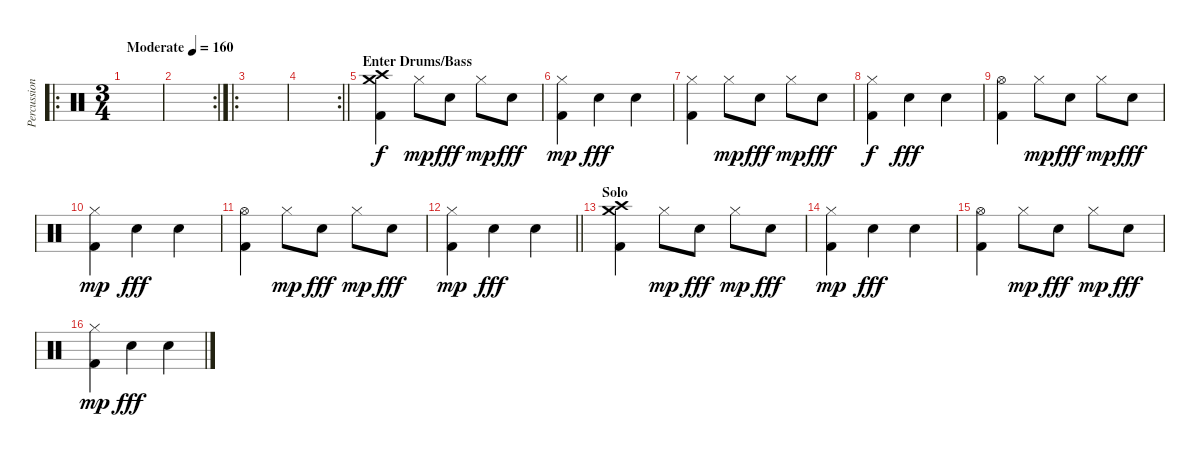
\track ("Percussion" "Percussion") {solo instrument percussion}
\staff {score}
\articulation defaults
\ro
\ts (3 4)
\tempo (160 "Moderate")
\clef neutral
\ks c
|
\rc 2
|
\ro
|
\rc 2
\barLineRight lightlight
|
\section ("" "Enter Drums/Bass")
("Crash medium (hit)" "Crash high (hit)" "Kick (hit) 2").4 "Hi-Hat (closed)".8{dy mp} "Electric Snare (hit)".8{dy fff} "Hi-Hat (closed)".8{dy mp} "Electric Snare (hit)".8{dy fff} |
("Hi-Hat (closed)" "Kick (hit) 2").4{dy mp} "Electric Snare (hit)".4{dy fff} "Electric Snare (hit)".4 |
("Hi-Hat (closed)" "Kick (hit) 2").4 "Hi-Hat (closed)".8{dy mp} "Electric Snare (hit)".8{dy fff} "Hi-Hat (closed)".8{dy mp} "Electric Snare (hit)".8{dy fff} |
("Hi-Hat (closed)" "Kick (hit) 2").4{dy f} "Electric Snare (hit)".4{dy fff} "Electric Snare (hit)".4 |
("Hi-Hat (open)" "Kick (hit) 2").4 "Hi-Hat (closed)".8{dy mp} "Electric Snare (hit)".8{dy fff} "Hi-Hat (closed)".8{dy mp} "Electric Snare (hit)".8{dy fff} |
("Hi-Hat (closed)" "Kick (hit) 2").4{dy mp} "Electric Snare (hit)".4{dy fff} "Electric Snare (hit)".4 |
("Hi-Hat (open)" "Kick (hit) 2").4 "Hi-Hat (closed)".8{dy mp} "Electric Snare (hit)".8{dy fff} "Hi-Hat (closed)".8{dy mp} "Electric Snare (hit)".8{dy fff} |
\barLineRight lightlight
("Hi-Hat (closed)" "Kick (hit) 2").4{dy mp} "Electric Snare (hit)".4{dy fff} "Electric Snare (hit)".4 |
\section ("" "Solo")
("Crash medium (hit)" "Crash high (hit)" "Kick (hit) 2").4 "Hi-Hat (closed)".8{dy mp} "Electric Snare (hit)".8{dy fff} "Hi-Hat (closed)".8{dy mp} "Electric Snare (hit)".8{dy fff} |
("Hi-Hat (closed)" "Kick (hit) 2").4{dy mp} "Electric Snare (hit)".4{dy fff} "Electric Snare (hit)".4 |
("Hi-Hat (open)" "Kick (hit) 2").4 "Hi-Hat (closed)".8{dy mp} "Electric Snare (hit)".8{dy fff} "Hi-Hat (closed)".8{dy mp} "Electric Snare (hit)".8{dy fff} |
("Hi-Hat (closed)" "Kick (hit) 2").4{dy mp} "Electric Snare (hit)".4{dy fff} "Electric Snare (hit)".4
